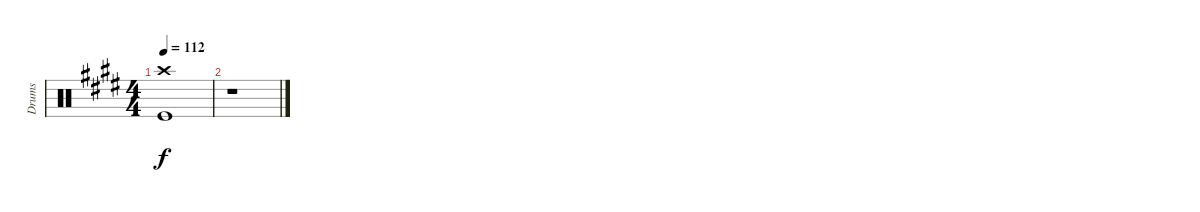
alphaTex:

\track ("Drums" "Drums") {instrument percussion}
\staff {score}
\articulation defaults
\ts (4 4)
\tempo 112
\clef neutral
\ks e
("Crash high (hit)" "Kick (hit)").1{dy f} |
r.1
